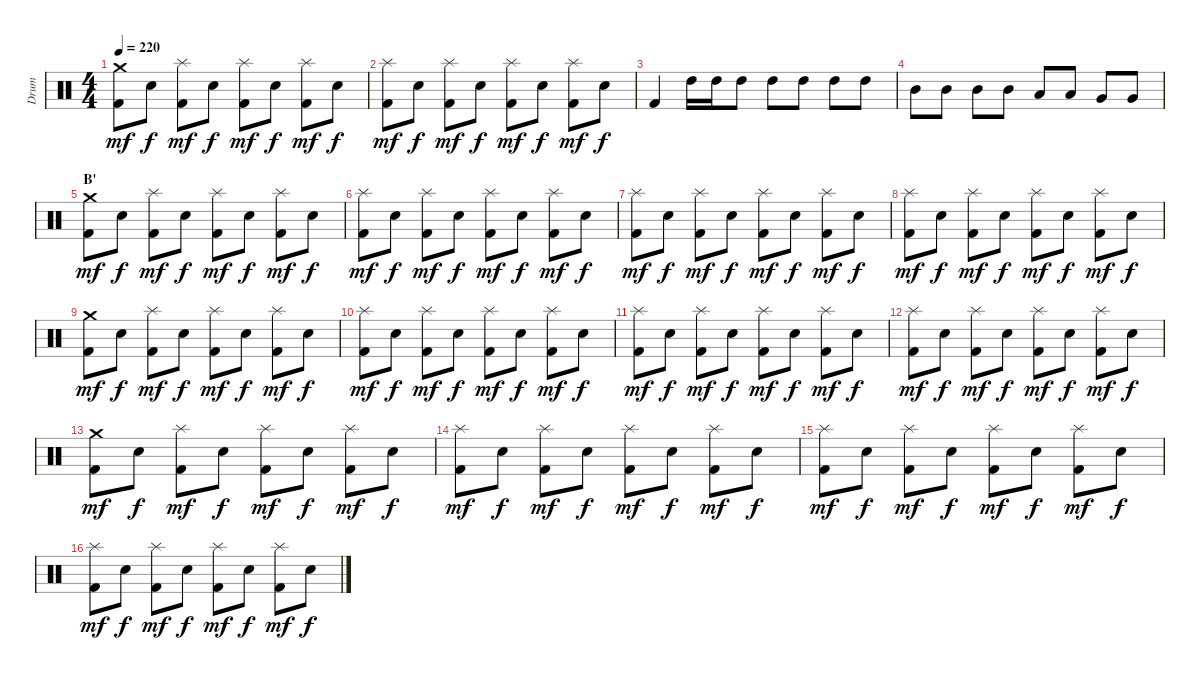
\track ("Drum" "Drum") {instrument percussion}
\staff {score}
\articulation defaults
\ts (4 4)
\tempo 220
\clef neutral
\ks c
("Crash medium (hit)" "Kick (hit) 2").8{dy mf} "Electric Snare (hit)".8{dy f} ("Splash (hit)" "Kick (hit) 2").8{dy mf} "Electric Snare (hit)".8{dy f} ("Splash (hit)" "Kick (hit) 2").8{dy mf} "Electric Snare (hit)".8{dy f} ("Splash (hit)" "Kick (hit) 2").8{dy mf} "Electric Snare (hit)".8{dy f} |
("Splash (hit)" "Kick (hit) 2").8{dy mf} "Electric Snare (hit)".8{dy f} ("Splash (hit)" "Kick (hit) 2").8{dy mf} "Electric Snare (hit)".8{dy f} ("Splash (hit)" "Kick (hit) 2").8{dy mf} "Electric Snare (hit)".8{dy f} ("Splash (hit)" "Kick (hit) 2").8{dy mf} "Electric Snare (hit)".8{dy f} |
"Kick (hit) 2".4 "High Tom (hit)".16 "High Tom (hit)".16 "High Tom (hit)".8 "High Tom (hit)".8 "High Tom (hit)".8 "High Tom (hit)".8 "High Tom (hit)".8 |
"Mid Tom (hit)".8 "Mid Tom (hit)".8 "Mid Tom (hit)".8 "Mid Tom (hit)".8 "Low Tom (hit)".8 "Low Tom (hit)".8 "Very Low Tom (hit)".8 "Very Low Tom (hit)".8 |
\section ("" "B'")
("Crash medium (hit)" "Kick (hit) 2").8{dy mf} "Electric Snare (hit)".8{dy f} ("Splash (hit)" "Kick (hit) 2").8{dy mf} "Electric Snare (hit)".8{dy f} ("Splash (hit)" "Kick (hit) 2").8{dy mf} "Electric Snare (hit)".8{dy f} ("Splash (hit)" "Kick (hit) 2").8{dy mf} "Electric Snare (hit)".8{dy f} |
("Splash (hit)" "Kick (hit) 2").8{dy mf} "Electric Snare (hit)".8{dy f} ("Splash (hit)" "Kick (hit) 2").8{dy mf} "Electric Snare (hit)".8{dy f} ("Splash (hit)" "Kick (hit) 2").8{dy mf} "Electric Snare (hit)".8{dy f} ("Splash (hit)" "Kick (hit) 2").8{dy mf} "Electric Snare (hit)".8{dy f} |
("Splash (hit)" "Kick (hit) 2").8{dy mf} "Electric Snare (hit)".8{dy f} ("Splash (hit)" "Kick (hit) 2").8{dy mf} "Electric Snare (hit)".8{dy f} ("Splash (hit)" "Kick (hit) 2").8{dy mf} "Electric Snare (hit)".8{dy f} ("Splash (hit)" "Kick (hit) 2").8{dy mf} "Electric Snare (hit)".8{dy f} |
("Splash (hit)" "Kick (hit) 2").8{dy mf} "Electric Snare (hit)".8{dy f} ("Splash (hit)" "Kick (hit) 2").8{dy mf} "Electric Snare (hit)".8{dy f} ("Splash (hit)" "Kick (hit) 2").8{dy mf} "Electric Snare (hit)".8{dy f} ("Splash (hit)" "Kick (hit) 2").8{dy mf} "Electric Snare (hit)".8{dy f} |
("Crash medium (hit)" "Kick (hit) 2").8{dy mf} "Electric Snare (hit)".8{dy f} ("Splash (hit)" "Kick (hit) 2").8{dy mf} "Electric Snare (hit)".8{dy f} ("Splash (hit)" "Kick (hit) 2").8{dy mf} "Electric Snare (hit)".8{dy f} ("Splash (hit)" "Kick (hit) 2").8{dy mf} "Electric Snare (hit)".8{dy f} |
("Splash (hit)" "Kick (hit) 2").8{dy mf} "Electric Snare (hit)".8{dy f} ("Splash (hit)" "Kick (hit) 2").8{dy mf} "Electric Snare (hit)".8{dy f} ("Splash (hit)" "Kick (hit) 2").8{dy mf} "Electric Snare (hit)".8{dy f} ("Splash (hit)" "Kick (hit) 2").8{dy mf} "Electric Snare (hit)".8{dy f} |
("Splash (hit)" "Kick (hit) 2").8{dy mf} "Electric Snare (hit)".8{dy f} ("Splash (hit)" "Kick (hit) 2").8{dy mf} "Electric Snare (hit)".8{dy f} ("Splash (hit)" "Kick (hit) 2").8{dy mf} "Electric Snare (hit)".8{dy f} ("Splash (hit)" "Kick (hit) 2").8{dy mf} "Electric Snare (hit)".8{dy f} |
("Splash (hit)" "Kick (hit) 2").8{dy mf} "Electric Snare (hit)".8{dy f} ("Splash (hit)" "Kick (hit) 2").8{dy mf} "Electric Snare (hit)".8{dy f} ("Splash (hit)" "Kick (hit) 2").8{dy mf} "Electric Snare (hit)".8{dy f} ("Splash (hit)" "Kick (hit) 2").8{dy mf} "Electric Snare (hit)".8{dy f} |
("Crash medium (hit)" "Kick (hit) 2").8{dy mf} "Electric Snare (hit)".8{dy f} ("Splash (hit)" "Kick (hit) 2").8{dy mf} "Electric Snare (hit)".8{dy f} ("Splash (hit)" "Kick (hit) 2").8{dy mf} "Electric Snare (hit)".8{dy f} ("Splash (hit)" "Kick (hit) 2").8{dy mf} "Electric Snare (hit)".8{dy f} |
("Splash (hit)" "Kick (hit) 2").8{dy mf} "Electric Snare (hit)".8{dy f} ("Splash (hit)" "Kick (hit) 2").8{dy mf} "Electric Snare (hit)".8{dy f} ("Splash (hit)" "Kick (hit) 2").8{dy mf} "Electric Snare (hit)".8{dy f} ("Splash (hit)" "Kick (hit) 2").8{dy mf} "Electric Snare (hit)".8{dy f} |
("Splash (hit)" "Kick (hit) 2").8{dy mf} "Electric Snare (hit)".8{dy f} ("Splash (hit)" "Kick (hit) 2").8{dy mf} "Electric Snare (hit)".8{dy f} ("Splash (hit)" "Kick (hit) 2").8{dy mf} "Electric Snare (hit)".8{dy f} ("Splash (hit)" "Kick (hit) 2").8{dy mf} "Electric Snare (hit)".8{dy f} |
("Splash (hit)" "Kick (hit) 2").8{dy mf} "Electric Snare (hit)".8{dy f} ("Splash (hit)" "Kick (hit) 2").8{dy mf} "Electric Snare (hit)".8{dy f} ("Splash (hit)" "Kick (hit) 2").8{dy mf} "Electric Snare (hit)".8{dy f} ("Splash (hit)" "Kick (hit) 2").8{dy mf} "Electric Snare (hit)".8{dy f}
